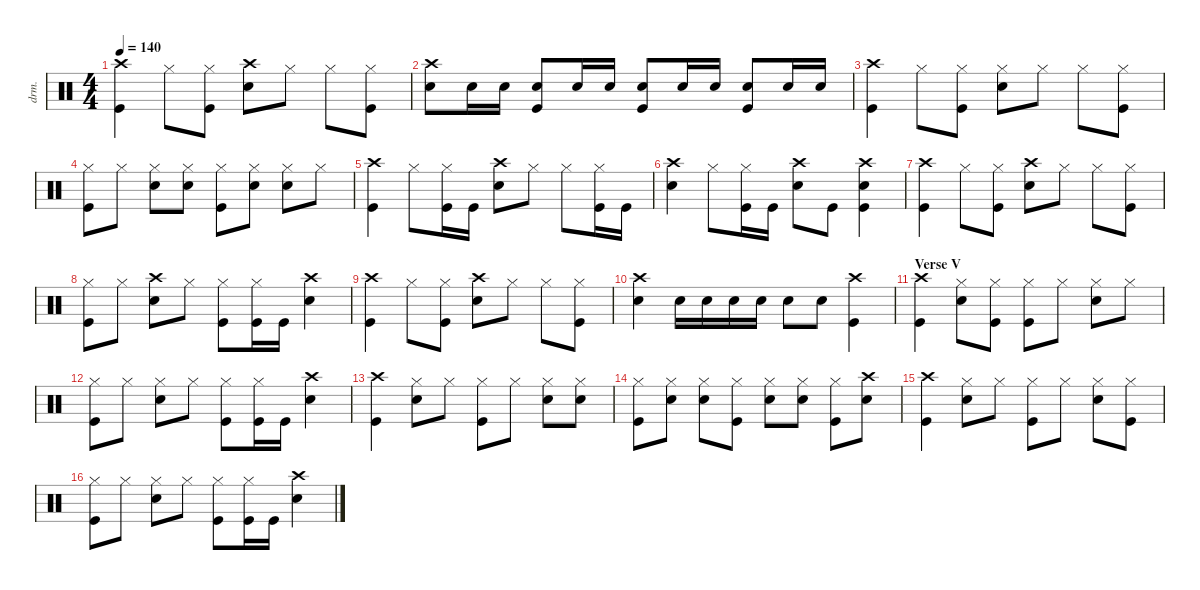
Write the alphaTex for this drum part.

\defaultSystemsLayout 4
\hideDynamics
\bracketExtendMode nobrackets
\otherSystemsTrackNameOrientation horizontal
\track ("Drums" "drm.") {multiBarRest instrument percussion}
\staff
\articulation defaults
\ts (4 4)
\tempo 140
\clef neutral
\ks c
("Crash high (hit)" "Kick (hit)").4{dy f} "Hi-Hat (closed)".8 ("Hi-Hat (closed)" "Kick (hit)").8 ("Snare (hit) 2" "Crash high (hit)").8 "Hi-Hat (closed)".8 "Hi-Hat (closed)".8 ("Hi-Hat (closed)" "Kick (hit)").8 |
("Crash high (hit)" "Snare (hit) 2").8 "Snare (hit) 2".16{dy mf} "Snare (hit) 2".16 ("Snare (hit) 2" "Kick (hit)").8{dy f} "Snare (hit) 2".16{dy mf} "Snare (hit) 2".16 ("Snare (hit) 2" "Kick (hit)").8{dy f} "Snare (hit) 2".16{dy mf} "Snare (hit) 2".16 ("Snare (hit) 2" "Kick (hit)").8{dy f} "Snare (hit) 2".16{dy mf} "Snare (hit) 2".16 |
("Crash high (hit)" "Kick (hit)").4{dy f} "Hi-Hat (closed)".8 ("Hi-Hat (closed)" "Kick (hit)").8 ("Snare (hit) 2" "Hi-Hat (closed)").8 "Hi-Hat (closed)".8 "Hi-Hat (closed)".8 ("Hi-Hat (closed)" "Kick (hit)").8 |
("Kick (hit)" "Hi-Hat (closed)").8 "Hi-Hat (closed)".8 ("Hi-Hat (closed)" "Snare (hit) 2").8 ("Hi-Hat (closed)" "Snare (hit) 2").8 ("Kick (hit)" "Hi-Hat (closed)").8 ("Hi-Hat (closed)" "Snare (hit) 2").8 ("Hi-Hat (closed)" "Snare (hit) 2").8 "Hi-Hat (closed)".8 |
("Crash high (hit)" "Kick (hit)").4 "Hi-Hat (closed)".8 ("Hi-Hat (closed)" "Kick (hit)").16 "Kick (hit)".16 ("Snare (hit) 2" "Crash high (hit)").8 "Hi-Hat (closed)".8 "Hi-Hat (closed)".8 ("Hi-Hat (closed)" "Kick (hit)").16 "Kick (hit)".16 |
("Snare (hit) 2" "Crash high (hit)").4 "Hi-Hat (closed)".8 ("Hi-Hat (closed)" "Kick (hit)").16 "Kick (hit)".16 ("Snare (hit) 2" "Crash high (hit)").8 "Kick (hit)".8 ("Kick (hit)" "Crash high (hit)" "Snare (hit) 2").4 |
("Crash high (hit)" "Kick (hit)").4 "Hi-Hat (closed)".8 ("Hi-Hat (closed)" "Kick (hit)").8 ("Snare (hit) 2" "Crash high (hit)").8 "Hi-Hat (closed)".8 "Hi-Hat (closed)".8 ("Hi-Hat (closed)" "Kick (hit)").8 |
("Kick (hit)" "Hi-Hat (closed)").8 "Hi-Hat (closed)".8 ("Crash high (hit)" "Snare (hit) 2").8 "Hi-Hat (closed)".8 ("Kick (hit)" "Hi-Hat (closed)").8 ("Kick (hit)" "Hi-Hat (closed)").16 "Kick (hit)".16 ("Snare (hit) 2" "Crash high (hit)").4 |
("Crash high (hit)" "Kick (hit)").4 "Hi-Hat (closed)".8 ("Hi-Hat (closed)" "Kick (hit)").8 ("Snare (hit) 2" "Crash high (hit)").8 "Hi-Hat (closed)".8 "Hi-Hat (closed)".8 ("Hi-Hat (closed)" "Kick (hit)").8 |
("Snare (hit) 2" "Crash high (hit)").4 "Snare (hit) 2".16{dy p} "Snare (hit) 2".16 "Snare (hit) 2".16 "Snare (hit) 2".16{dy mp} "Snare (hit) 2".8{dy mf} "Snare (hit) 2".8{dy f} ("Kick (hit)" "Crash high (hit)").4 |
\section ("" "Verse V")
("Crash high (hit)" "Kick (hit)").4 ("Hi-Hat (closed)" "Snare (hit) 2").8 ("Hi-Hat (closed)" "Kick (hit)").8 ("Hi-Hat (closed)" "Kick (hit)").8 "Hi-Hat (closed)".8 ("Hi-Hat (closed)" "Snare (hit) 2").8 "Hi-Hat (closed)".8 |
("Kick (hit)" "Hi-Hat (closed)").8 "Hi-Hat (closed)".8 ("Hi-Hat (closed)" "Snare (hit) 2").8 "Hi-Hat (closed)".8 ("Hi-Hat (closed)" "Kick (hit)").8 ("Hi-Hat (closed)" "Kick (hit)").16 "Kick (hit)".16 ("Snare (hit) 2" "Crash high (hit)").4 |
("Crash high (hit)" "Kick (hit)").4 ("Hi-Hat (closed)" "Snare (hit) 2").8 "Hi-Hat (closed)".8 ("Hi-Hat (closed)" "Kick (hit)").8 "Hi-Hat (closed)".8 ("Hi-Hat (closed)" "Snare (hit) 2").8 ("Hi-Hat (closed)" "Snare (hit) 2").8 |
("Kick (hit)" "Hi-Hat (closed)").8 ("Hi-Hat (closed)" "Snare (hit) 2").8 ("Hi-Hat (closed)" "Snare (hit) 2").8 ("Hi-Hat (closed)" "Kick (hit)").8 ("Snare (hit) 2" "Hi-Hat (closed)").8 ("Snare (hit) 2" "Hi-Hat (closed)").8 ("Hi-Hat (closed)" "Kick (hit)").8 ("Snare (hit) 2" "Crash high (hit)").8 |
("Crash high (hit)" "Kick (hit)").4 ("Hi-Hat (closed)" "Snare (hit) 2").8 "Hi-Hat (closed)".8 ("Hi-Hat (closed)" "Kick (hit)").8 "Hi-Hat (closed)".8 ("Hi-Hat (closed)" "Snare (hit) 2").8 ("Hi-Hat (closed)" "Kick (hit)").8 |
("Kick (hit)" "Hi-Hat (closed)").8 "Hi-Hat (closed)".8 ("Hi-Hat (closed)" "Snare (hit) 2").8 "Hi-Hat (closed)".8 ("Hi-Hat (closed)" "Kick (hit)").8 ("Hi-Hat (closed)" "Kick (hit)").16 "Kick (hit)".16 ("Snare (hit) 2" "Crash high (hit)").4
